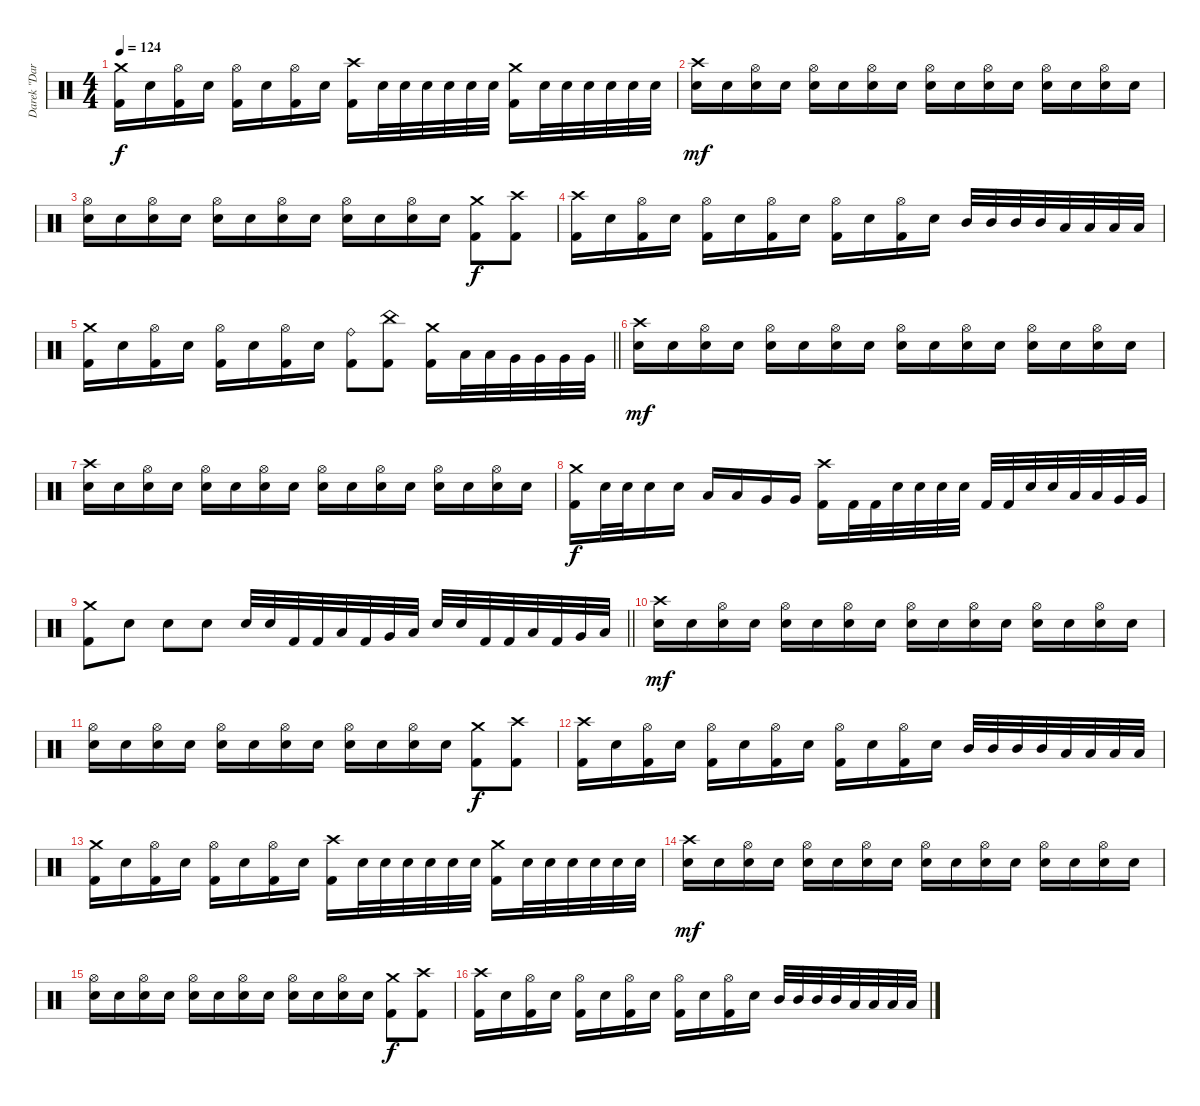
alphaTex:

\track ("Darek \"Daray\" Brzozowski " "Darek \"Dar") {instrument percussion}
\staff {score}
\articulation defaults
\ts (4 4)
\tempo 124
\clef neutral
\ks c
("Crash medium (hit)" "Kick (hit) 2").16{dy f} "Electric Snare (hit)".16 ("Hi-Hat (open)" "Kick (hit) 2").16 "Electric Snare (hit)".16 ("Hi-Hat (open)" "Kick (hit) 2").16 "Electric Snare (hit)".16 ("Hi-Hat (open)" "Kick (hit) 2").16 "Electric Snare (hit)".16 ("Crash high (hit)" "Kick (hit) 2").16 "Electric Snare (hit)".32 "Electric Snare (hit)".32 "Electric Snare (hit)".32 "Electric Snare (hit)".32 "Electric Snare (hit)".32 "Electric Snare (hit)".32 ("Crash medium (hit)" "Kick (hit) 2").16 "Electric Snare (hit)".32 "Electric Snare (hit)".32 "Electric Snare (hit)".32 "Electric Snare (hit)".32 "Electric Snare (hit)".32 "Electric Snare (hit)".32 |
("Crash high (hit)" "Electric Snare (hit)").16{dy mf} "Electric Snare (hit)".16 ("Hi-Hat (open)" "Electric Snare (hit)").16 "Electric Snare (hit)".16 ("Hi-Hat (open)" "Electric Snare (hit)").16 "Electric Snare (hit)".16 ("Hi-Hat (open)" "Electric Snare (hit)").16 "Electric Snare (hit)".16 ("Hi-Hat (open)" "Electric Snare (hit)").16 "Electric Snare (hit)".16 ("Hi-Hat (open)" "Electric Snare (hit)").16 "Electric Snare (hit)".16 ("Hi-Hat (open)" "Electric Snare (hit)").16 "Electric Snare (hit)".16 ("Hi-Hat (open)" "Electric Snare (hit)").16 "Electric Snare (hit)".16 |
("Hi-Hat (open)" "Electric Snare (hit)").16 "Electric Snare (hit)".16 ("Hi-Hat (open)" "Electric Snare (hit)").16 "Electric Snare (hit)".16 ("Hi-Hat (open)" "Electric Snare (hit)").16 "Electric Snare (hit)".16 ("Hi-Hat (open)" "Electric Snare (hit)").16 "Electric Snare (hit)".16 ("Hi-Hat (open)" "Electric Snare (hit)").16 "Electric Snare (hit)".16 ("Hi-Hat (open)" "Electric Snare (hit)").16 "Electric Snare (hit)".16 ("Crash medium (hit)" "Kick (hit) 2").8{dy f} ("Crash high (hit)" "Kick (hit) 2").8 |
("Crash high (hit)" "Kick (hit) 2").16 "Electric Snare (hit)".16 ("Hi-Hat (open)" "Kick (hit) 2").16 "Electric Snare (hit)".16 ("Hi-Hat (open)" "Kick (hit) 2").16 "Electric Snare (hit)".16 ("Hi-Hat (open)" "Kick (hit) 2").16 "Electric Snare (hit)".16 ("Hi-Hat (open)" "Kick (hit) 2").16 "Electric Snare (hit)".16 ("Hi-Hat (open)" "Kick (hit) 2").16 "Electric Snare (hit)".16 "Mid Tom (hit)".32 "Mid Tom (hit)".32 "Mid Tom (hit)".32 "Mid Tom (hit)".32 "Low Tom (hit)".32 "Low Tom (hit)".32 "Low Tom (hit)".32 "Low Tom (hit)".32 |
\barLineRight lightlight
("Crash medium (hit)" "Kick (hit) 2").16 "Electric Snare (hit)".16 ("Hi-Hat (open)" "Kick (hit) 2").16 "Electric Snare (hit)".16 ("Hi-Hat (open)" "Kick (hit) 2").16 "Electric Snare (hit)".16 ("Hi-Hat (open)" "Kick (hit) 2").16 "Electric Snare (hit)".16 ("Ride (bell)" "Kick (hit) 2").8 ("China (hit)" "Kick (hit) 2").8 ("Crash medium (hit)" "Kick (hit) 2").16 "Low Tom (hit)".32 "Low Tom (hit)".32 "Very Low Tom (hit)".32 "Very Low Tom (hit)".32 "Very Low Tom (hit)".32 "Very Low Tom (hit)".32 |
("Crash high (hit)" "Electric Snare (hit)").16{dy mf} "Electric Snare (hit)".16 ("Hi-Hat (open)" "Electric Snare (hit)").16 "Electric Snare (hit)".16 ("Hi-Hat (open)" "Electric Snare (hit)").16 "Electric Snare (hit)".16 ("Hi-Hat (open)" "Electric Snare (hit)").16 "Electric Snare (hit)".16 ("Hi-Hat (open)" "Electric Snare (hit)").16 "Electric Snare (hit)".16 ("Hi-Hat (open)" "Electric Snare (hit)").16 "Electric Snare (hit)".16 ("Hi-Hat (open)" "Electric Snare (hit)").16 "Electric Snare (hit)".16 ("Hi-Hat (open)" "Electric Snare (hit)").16 "Electric Snare (hit)".16 |
("Crash high (hit)" "Electric Snare (hit)").16 "Electric Snare (hit)".16 ("Hi-Hat (open)" "Electric Snare (hit)").16 "Electric Snare (hit)".16 ("Hi-Hat (open)" "Electric Snare (hit)").16 "Electric Snare (hit)".16 ("Hi-Hat (open)" "Electric Snare (hit)").16 "Electric Snare (hit)".16 ("Hi-Hat (open)" "Electric Snare (hit)").16 "Electric Snare (hit)".16 ("Hi-Hat (open)" "Electric Snare (hit)").16 "Electric Snare (hit)".16 ("Hi-Hat (open)" "Electric Snare (hit)").16 "Electric Snare (hit)".16 ("Hi-Hat (open)" "Electric Snare (hit)").16 "Electric Snare (hit)".16 |
("Crash medium (hit)" "Kick (hit) 2").16{dy f} "Electric Snare (hit)".32 "Electric Snare (hit)".32 "Electric Snare (hit)".16 "Electric Snare (hit)".16 "Low Tom (hit)".16 "Low Tom (hit)".16 "Very Low Tom (hit)".16 "Very Low Tom (hit)".16 ("Crash high (hit)" "Kick (hit) 2").16 "Kick (hit) 2".32 "Kick (hit) 2".32 "Electric Snare (hit)".32 "Electric Snare (hit)".32 "Electric Snare (hit)".32 "Electric Snare (hit)".32 "Kick (hit) 2".32 "Kick (hit) 2".32 "Electric Snare (hit)".32 "Electric Snare (hit)".32 "Low Tom (hit)".32 "Low Tom (hit)".32 "Very Low Tom (hit)".32 "Very Low Tom (hit)".32 |
\barLineRight lightlight
("Crash medium (hit)" "Kick (hit) 2").8 "Electric Snare (hit)".8 "Electric Snare (hit)".8 "Electric Snare (hit)".8 "Electric Snare (hit)".32 "Electric Snare (hit)".32 "Kick (hit) 2".32 "Kick (hit) 2".32 "Low Tom (hit)".32 "Kick (hit) 2".32 "Very Low Tom (hit)".32 "Low Floor Tom (hit)".32 "Electric Snare (hit)".32 "Electric Snare (hit)".32 "Kick (hit) 2".32 "Kick (hit) 2".32 "Low Tom (hit)".32 "Kick (hit) 2".32 "Very Low Tom (hit)".32 "Low Floor Tom (hit)".32 |
("Crash high (hit)" "Electric Snare (hit)").16{dy mf} "Electric Snare (hit)".16 ("Hi-Hat (open)" "Electric Snare (hit)").16 "Electric Snare (hit)".16 ("Hi-Hat (open)" "Electric Snare (hit)").16 "Electric Snare (hit)".16 ("Hi-Hat (open)" "Electric Snare (hit)").16 "Electric Snare (hit)".16 ("Hi-Hat (open)" "Electric Snare (hit)").16 "Electric Snare (hit)".16 ("Hi-Hat (open)" "Electric Snare (hit)").16 "Electric Snare (hit)".16 ("Hi-Hat (open)" "Electric Snare (hit)").16 "Electric Snare (hit)".16 ("Hi-Hat (open)" "Electric Snare (hit)").16 "Electric Snare (hit)".16 |
("Hi-Hat (open)" "Electric Snare (hit)").16 "Electric Snare (hit)".16 ("Hi-Hat (open)" "Electric Snare (hit)").16 "Electric Snare (hit)".16 ("Hi-Hat (open)" "Electric Snare (hit)").16 "Electric Snare (hit)".16 ("Hi-Hat (open)" "Electric Snare (hit)").16 "Electric Snare (hit)".16 ("Hi-Hat (open)" "Electric Snare (hit)").16 "Electric Snare (hit)".16 ("Hi-Hat (open)" "Electric Snare (hit)").16 "Electric Snare (hit)".16 ("Crash medium (hit)" "Kick (hit) 2").8{dy f} ("Crash high (hit)" "Kick (hit) 2").8 |
("Crash high (hit)" "Kick (hit) 2").16 "Electric Snare (hit)".16 ("Hi-Hat (open)" "Kick (hit) 2").16 "Electric Snare (hit)".16 ("Hi-Hat (open)" "Kick (hit) 2").16 "Electric Snare (hit)".16 ("Hi-Hat (open)" "Kick (hit) 2").16 "Electric Snare (hit)".16 ("Hi-Hat (open)" "Kick (hit) 2").16 "Electric Snare (hit)".16 ("Hi-Hat (open)" "Kick (hit) 2").16 "Electric Snare (hit)".16 "Mid Tom (hit)".32 "Mid Tom (hit)".32 "Mid Tom (hit)".32 "Mid Tom (hit)".32 "Low Tom (hit)".32 "Low Tom (hit)".32 "Low Tom (hit)".32 "Low Tom (hit)".32 |
("Crash medium (hit)" "Kick (hit) 2").16 "Electric Snare (hit)".16 ("Hi-Hat (open)" "Kick (hit) 2").16 "Electric Snare (hit)".16 ("Hi-Hat (open)" "Kick (hit) 2").16 "Electric Snare (hit)".16 ("Hi-Hat (open)" "Kick (hit) 2").16 "Electric Snare (hit)".16 ("Crash high (hit)" "Kick (hit) 2").16 "Electric Snare (hit)".32 "Electric Snare (hit)".32 "Electric Snare (hit)".32 "Electric Snare (hit)".32 "Electric Snare (hit)".32 "Electric Snare (hit)".32 ("Crash medium (hit)" "Kick (hit) 2").16 "Electric Snare (hit)".32 "Electric Snare (hit)".32 "Electric Snare (hit)".32 "Electric Snare (hit)".32 "Electric Snare (hit)".32 "Electric Snare (hit)".32 |
("Crash high (hit)" "Electric Snare (hit)").16{dy mf} "Electric Snare (hit)".16 ("Hi-Hat (open)" "Electric Snare (hit)").16 "Electric Snare (hit)".16 ("Hi-Hat (open)" "Electric Snare (hit)").16 "Electric Snare (hit)".16 ("Hi-Hat (open)" "Electric Snare (hit)").16 "Electric Snare (hit)".16 ("Hi-Hat (open)" "Electric Snare (hit)").16 "Electric Snare (hit)".16 ("Hi-Hat (open)" "Electric Snare (hit)").16 "Electric Snare (hit)".16 ("Hi-Hat (open)" "Electric Snare (hit)").16 "Electric Snare (hit)".16 ("Hi-Hat (open)" "Electric Snare (hit)").16 "Electric Snare (hit)".16 |
("Hi-Hat (open)" "Electric Snare (hit)").16 "Electric Snare (hit)".16 ("Hi-Hat (open)" "Electric Snare (hit)").16 "Electric Snare (hit)".16 ("Hi-Hat (open)" "Electric Snare (hit)").16 "Electric Snare (hit)".16 ("Hi-Hat (open)" "Electric Snare (hit)").16 "Electric Snare (hit)".16 ("Hi-Hat (open)" "Electric Snare (hit)").16 "Electric Snare (hit)".16 ("Hi-Hat (open)" "Electric Snare (hit)").16 "Electric Snare (hit)".16 ("Crash medium (hit)" "Kick (hit) 2").8{dy f} ("Crash high (hit)" "Kick (hit) 2").8 |
("Crash high (hit)" "Kick (hit) 2").16 "Electric Snare (hit)".16 ("Hi-Hat (open)" "Kick (hit) 2").16 "Electric Snare (hit)".16 ("Hi-Hat (open)" "Kick (hit) 2").16 "Electric Snare (hit)".16 ("Hi-Hat (open)" "Kick (hit) 2").16 "Electric Snare (hit)".16 ("Hi-Hat (open)" "Kick (hit) 2").16 "Electric Snare (hit)".16 ("Hi-Hat (open)" "Kick (hit) 2").16 "Electric Snare (hit)".16 "Mid Tom (hit)".32 "Mid Tom (hit)".32 "Mid Tom (hit)".32 "Mid Tom (hit)".32 "Low Tom (hit)".32 "Low Tom (hit)".32 "Low Tom (hit)".32 "Low Tom (hit)".32
